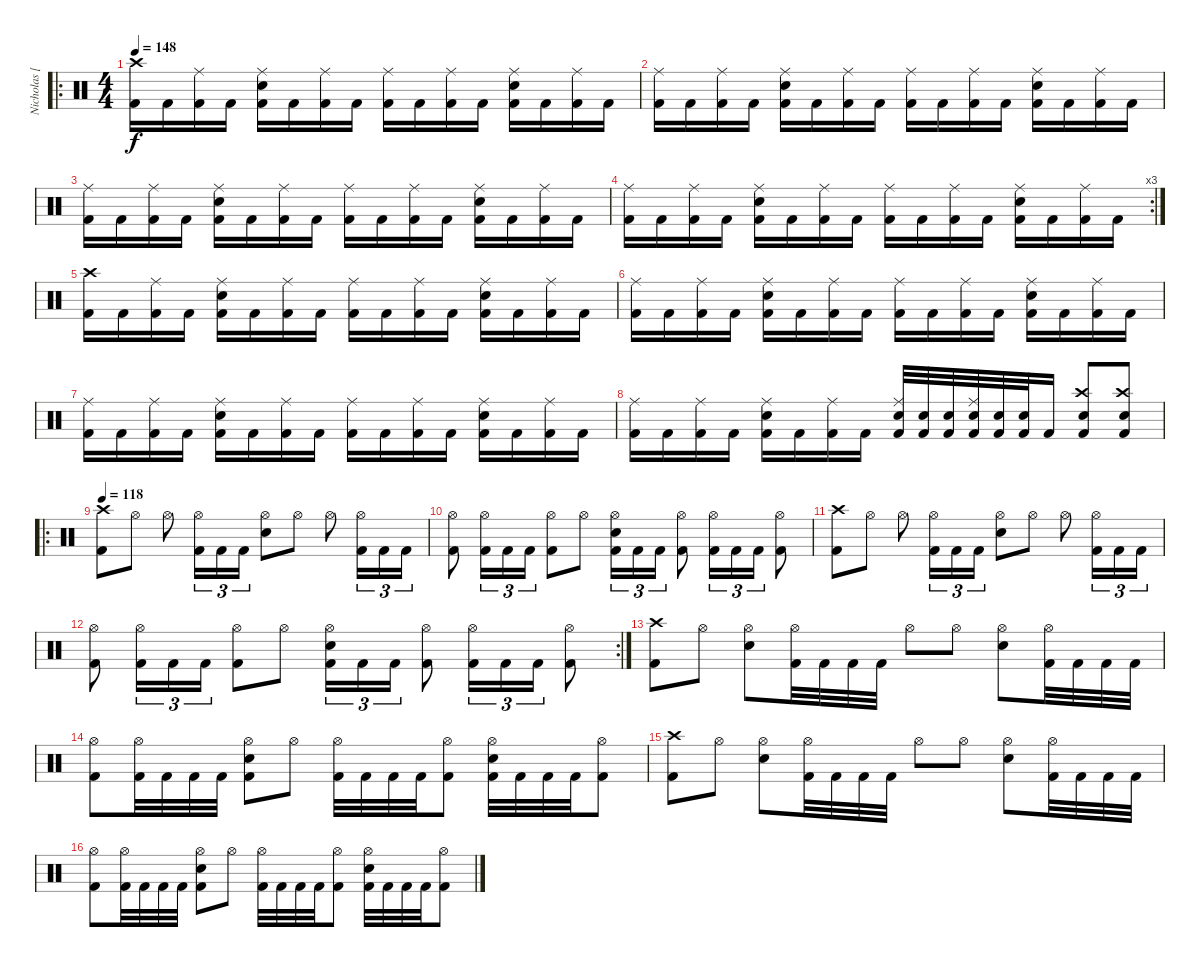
\track ("Nicholas [Percussion]" "Nicholas [") {instrument percussion}
\staff {score}
\articulation defaults
\ro
\ts (4 4)
\tempo 148
\clef neutral
\ks c
("Kick (hit) 2" "Crash high (hit)").16{dy f} "Kick (hit) 2".16 ("Kick (hit) 2" "Ride (middle)").16 "Kick (hit) 2".16 ("Kick (hit) 2" "Snare (hit) 2" "Ride (middle)").16 "Kick (hit) 2".16 ("Kick (hit) 2" "Ride (middle)").16 "Kick (hit) 2".16 ("Kick (hit) 2" "Ride (middle)").16 "Kick (hit) 2".16 ("Kick (hit) 2" "Ride (middle)").16 "Kick (hit) 2".16 ("Kick (hit) 2" "Snare (hit) 2" "Ride (middle)").16 "Kick (hit) 2".16 ("Kick (hit) 2" "Ride (middle)").16 "Kick (hit) 2".16 |
("Kick (hit) 2" "Ride (middle)").16 "Kick (hit) 2".16 ("Kick (hit) 2" "Ride (middle)").16 "Kick (hit) 2".16 ("Kick (hit) 2" "Snare (hit) 2" "Ride (middle)").16 "Kick (hit) 2".16 ("Kick (hit) 2" "Ride (middle)").16 "Kick (hit) 2".16 ("Kick (hit) 2" "Ride (middle)").16 "Kick (hit) 2".16 ("Kick (hit) 2" "Ride (middle)").16 "Kick (hit) 2".16 ("Kick (hit) 2" "Snare (hit) 2" "Ride (middle)").16 "Kick (hit) 2".16 ("Kick (hit) 2" "Ride (middle)").16 "Kick (hit) 2".16 |
("Kick (hit) 2" "Ride (middle)").16 "Kick (hit) 2".16 ("Kick (hit) 2" "Ride (middle)").16 "Kick (hit) 2".16 ("Kick (hit) 2" "Snare (hit) 2" "Ride (middle)").16 "Kick (hit) 2".16 ("Kick (hit) 2" "Ride (middle)").16 "Kick (hit) 2".16 ("Kick (hit) 2" "Ride (middle)").16 "Kick (hit) 2".16 ("Kick (hit) 2" "Ride (middle)").16 "Kick (hit) 2".16 ("Kick (hit) 2" "Snare (hit) 2" "Ride (middle)").16 "Kick (hit) 2".16 ("Kick (hit) 2" "Ride (middle)").16 "Kick (hit) 2".16 |
\rc 3
("Kick (hit) 2" "Ride (middle)").16 "Kick (hit) 2".16 ("Kick (hit) 2" "Ride (middle)").16 "Kick (hit) 2".16 ("Kick (hit) 2" "Snare (hit) 2" "Ride (middle)").16 "Kick (hit) 2".16 ("Kick (hit) 2" "Ride (middle)").16 "Kick (hit) 2".16 ("Kick (hit) 2" "Ride (middle)").16 "Kick (hit) 2".16 ("Kick (hit) 2" "Ride (middle)").16 "Kick (hit) 2".16 ("Kick (hit) 2" "Snare (hit) 2" "Ride (middle)").16 "Kick (hit) 2".16 ("Kick (hit) 2" "Ride (middle)").16 "Kick (hit) 2".16 |
("Kick (hit) 2" "Crash high (hit)").16 "Kick (hit) 2".16 ("Kick (hit) 2" "Ride (middle)").16 "Kick (hit) 2".16 ("Kick (hit) 2" "Snare (hit) 2" "Ride (middle)").16 "Kick (hit) 2".16 ("Kick (hit) 2" "Ride (middle)").16 "Kick (hit) 2".16 ("Kick (hit) 2" "Ride (middle)").16 "Kick (hit) 2".16 ("Kick (hit) 2" "Ride (middle)").16 "Kick (hit) 2".16 ("Kick (hit) 2" "Snare (hit) 2" "Ride (middle)").16 "Kick (hit) 2".16 ("Kick (hit) 2" "Ride (middle)").16 "Kick (hit) 2".16 |
("Kick (hit) 2" "Ride (middle)").16 "Kick (hit) 2".16 ("Kick (hit) 2" "Ride (middle)").16 "Kick (hit) 2".16 ("Kick (hit) 2" "Snare (hit) 2" "Ride (middle)").16 "Kick (hit) 2".16 ("Kick (hit) 2" "Ride (middle)").16 "Kick (hit) 2".16 ("Kick (hit) 2" "Ride (middle)").16 "Kick (hit) 2".16 ("Kick (hit) 2" "Ride (middle)").16 "Kick (hit) 2".16 ("Kick (hit) 2" "Snare (hit) 2" "Ride (middle)").16 "Kick (hit) 2".16 ("Kick (hit) 2" "Ride (middle)").16 "Kick (hit) 2".16 |
("Kick (hit) 2" "Ride (middle)").16 "Kick (hit) 2".16 ("Kick (hit) 2" "Ride (middle)").16 "Kick (hit) 2".16 ("Kick (hit) 2" "Snare (hit) 2" "Ride (middle)").16 "Kick (hit) 2".16 ("Kick (hit) 2" "Ride (middle)").16 "Kick (hit) 2".16 ("Kick (hit) 2" "Ride (middle)").16 "Kick (hit) 2".16 ("Kick (hit) 2" "Ride (middle)").16 "Kick (hit) 2".16 ("Kick (hit) 2" "Snare (hit) 2" "Ride (middle)").16 "Kick (hit) 2".16 ("Kick (hit) 2" "Ride (middle)").16 "Kick (hit) 2".16 |
("Kick (hit) 2" "Ride (middle)").16 "Kick (hit) 2".16 ("Kick (hit) 2" "Ride (middle)").16 "Kick (hit) 2".16 ("Kick (hit) 2" "Snare (hit) 2" "Ride (middle)").16 "Kick (hit) 2".16 ("Kick (hit) 2" "Ride (middle)").16 "Kick (hit) 2".16 ("Kick (hit) 2" "Snare (hit) 2" "Ride (middle)").32 ("Kick (hit) 2" "Snare (hit) 2").32 ("Kick (hit) 2" "Snare (hit) 2").32 ("Kick (hit) 2" "Snare (hit) 2" "Ride (middle)").32 ("Kick (hit) 2" "Snare (hit) 2").32 ("Kick (hit) 2" "Snare (hit) 2").32 "Kick (hit) 2".16 ("Kick (hit) 2" "Snare (hit) 2" "Crash high (hit)").8 ("Kick (hit) 2" "Snare (hit) 2" "Crash high (hit)").8 |
\ro
\tempo 118
("Kick (hit) 2" "Crash high (hit)").8 "Hi-Hat (open)".8 "Hi-Hat (open)".8 ("Kick (hit) 2" "Hi-Hat (open)").16{tu (3 2)} "Kick (hit) 2".16{tu (3 2)} "Kick (hit) 2".16{tu (3 2)} ("Snare (hit) 2" "Hi-Hat (open)").8 "Hi-Hat (open)".8 "Hi-Hat (open)".8 ("Kick (hit) 2" "Hi-Hat (open)").16{tu (3 2)} "Kick (hit) 2".16{tu (3 2)} "Kick (hit) 2".16{tu (3 2)} |
("Kick (hit) 2" "Hi-Hat (open)").8 ("Kick (hit) 2" "Hi-Hat (open)").16{tu (3 2)} "Kick (hit) 2".16{tu (3 2)} "Kick (hit) 2".16{tu (3 2)} ("Kick (hit) 2" "Hi-Hat (open)").8 "Hi-Hat (open)".8 ("Kick (hit) 2" "Snare (hit) 2" "Hi-Hat (open)").16{tu (3 2)} "Kick (hit) 2".16{tu (3 2)} "Kick (hit) 2".16{tu (3 2)} ("Kick (hit) 2" "Hi-Hat (open)").8 ("Kick (hit) 2" "Hi-Hat (open)").16{tu (3 2)} "Kick (hit) 2".16{tu (3 2)} "Kick (hit) 2".16{tu (3 2)} ("Kick (hit) 2" "Hi-Hat (open)").8 |
("Kick (hit) 2" "Crash high (hit)").8 "Hi-Hat (open)".8 "Hi-Hat (open)".8 ("Kick (hit) 2" "Hi-Hat (open)").16{tu (3 2)} "Kick (hit) 2".16{tu (3 2)} "Kick (hit) 2".16{tu (3 2)} ("Snare (hit) 2" "Hi-Hat (open)").8 "Hi-Hat (open)".8 "Hi-Hat (open)".8 ("Kick (hit) 2" "Hi-Hat (open)").16{tu (3 2)} "Kick (hit) 2".16{tu (3 2)} "Kick (hit) 2".16{tu (3 2)} |
\rc 2
("Kick (hit) 2" "Hi-Hat (open)").8 ("Kick (hit) 2" "Hi-Hat (open)").16{tu (3 2)} "Kick (hit) 2".16{tu (3 2)} "Kick (hit) 2".16{tu (3 2)} ("Kick (hit) 2" "Hi-Hat (open)").8 "Hi-Hat (open)".8 ("Kick (hit) 2" "Snare (hit) 2" "Hi-Hat (open)").16{tu (3 2)} "Kick (hit) 2".16{tu (3 2)} "Kick (hit) 2".16{tu (3 2)} ("Kick (hit) 2" "Hi-Hat (open)").8 ("Kick (hit) 2" "Hi-Hat (open)").16{tu (3 2)} "Kick (hit) 2".16{tu (3 2)} "Kick (hit) 2".16{tu (3 2)} ("Kick (hit) 2" "Hi-Hat (open)").8 |
("Kick (hit) 2" "Crash high (hit)").8 "Hi-Hat (open)".8 ("Snare (hit) 2" "Hi-Hat (open)").8 ("Kick (hit) 2" "Hi-Hat (open)").32 "Kick (hit) 2".32 "Kick (hit) 2".32 "Kick (hit) 2".32 "Hi-Hat (open)".8 "Hi-Hat (open)".8 ("Snare (hit) 2" "Hi-Hat (open)").8 ("Kick (hit) 2" "Hi-Hat (open)").32 "Kick (hit) 2".32 "Kick (hit) 2".32 "Kick (hit) 2".32 |
("Kick (hit) 2" "Hi-Hat (open)").8 ("Kick (hit) 2" "Hi-Hat (open)").32 "Kick (hit) 2".32 "Kick (hit) 2".32 "Kick (hit) 2".32 ("Kick (hit) 2" "Snare (hit) 2" "Hi-Hat (open)").8 "Hi-Hat (open)".8 ("Kick (hit) 2" "Hi-Hat (open)").32 "Kick (hit) 2".32 "Kick (hit) 2".32 "Kick (hit) 2".32 ("Kick (hit) 2" "Hi-Hat (open)").8 ("Kick (hit) 2" "Snare (hit) 2" "Hi-Hat (open)").32 "Kick (hit) 2".32 "Kick (hit) 2".32 "Kick (hit) 2".32 ("Kick (hit) 2" "Hi-Hat (open)").8 |
("Kick (hit) 2" "Crash high (hit)").8 "Hi-Hat (open)".8 ("Snare (hit) 2" "Hi-Hat (open)").8 ("Kick (hit) 2" "Hi-Hat (open)").32 "Kick (hit) 2".32 "Kick (hit) 2".32 "Kick (hit) 2".32 "Hi-Hat (open)".8 "Hi-Hat (open)".8 ("Snare (hit) 2" "Hi-Hat (open)").8 ("Kick (hit) 2" "Hi-Hat (open)").32 "Kick (hit) 2".32 "Kick (hit) 2".32 "Kick (hit) 2".32 |
("Kick (hit) 2" "Hi-Hat (open)").8 ("Kick (hit) 2" "Hi-Hat (open)").32 "Kick (hit) 2".32 "Kick (hit) 2".32 "Kick (hit) 2".32 ("Kick (hit) 2" "Snare (hit) 2" "Hi-Hat (open)").8 "Hi-Hat (open)".8 ("Kick (hit) 2" "Hi-Hat (open)").32 "Kick (hit) 2".32 "Kick (hit) 2".32 "Kick (hit) 2".32 ("Kick (hit) 2" "Hi-Hat (open)").8 ("Kick (hit) 2" "Snare (hit) 2" "Hi-Hat (open)").32 "Kick (hit) 2".32 "Kick (hit) 2".32 "Kick (hit) 2".32 ("Kick (hit) 2" "Hi-Hat (open)").8
